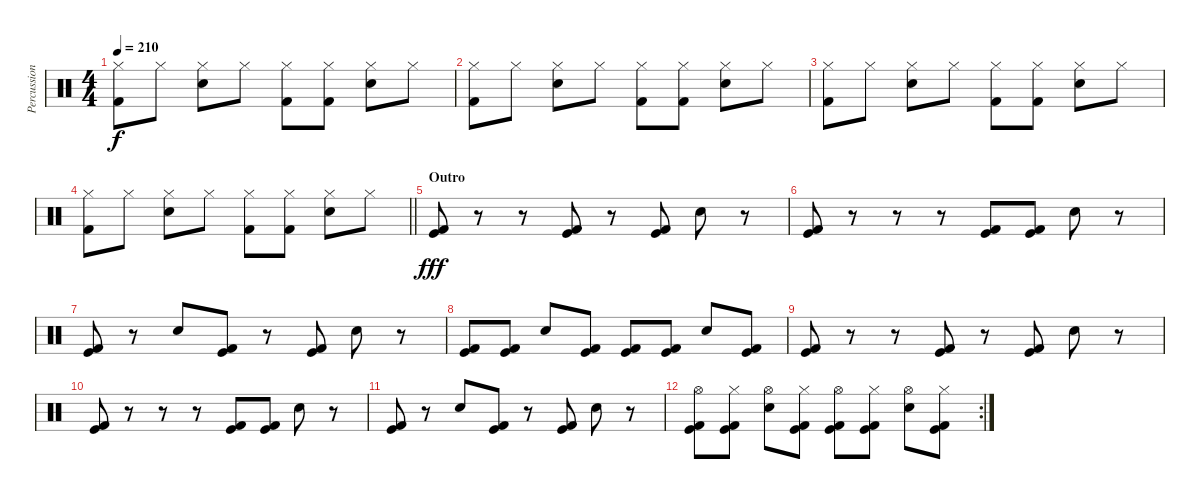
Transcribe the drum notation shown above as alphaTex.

\track ("Percussion" "Percussion") {instrument percussion}
\staff {score}
\articulation defaults
\ts (4 4)
\tempo 210
\clef neutral
\ks c
("Hi-Hat (closed)" "Kick (hit) 2").8{dy f} "Hi-Hat (closed)".8 ("Hi-Hat (closed)" "Snare (hit) 2").8 "Hi-Hat (closed)".8 ("Hi-Hat (closed)" "Kick (hit) 2").8 ("Hi-Hat (closed)" "Kick (hit) 2").8 ("Hi-Hat (closed)" "Snare (hit) 2").8 "Hi-Hat (closed)".8 |
("Hi-Hat (closed)" "Kick (hit) 2").8 "Hi-Hat (closed)".8 ("Hi-Hat (closed)" "Snare (hit) 2").8 "Hi-Hat (closed)".8 ("Hi-Hat (closed)" "Kick (hit) 2").8 ("Hi-Hat (closed)" "Kick (hit) 2").8 ("Hi-Hat (closed)" "Snare (hit) 2").8 "Hi-Hat (closed)".8 |
("Hi-Hat (closed)" "Kick (hit) 2").8 "Hi-Hat (closed)".8 ("Hi-Hat (closed)" "Snare (hit) 2").8 "Hi-Hat (closed)".8 ("Hi-Hat (closed)" "Kick (hit) 2").8 ("Hi-Hat (closed)" "Kick (hit) 2").8 ("Hi-Hat (closed)" "Snare (hit) 2").8 "Hi-Hat (closed)".8 |
\barLineRight lightlight
("Hi-Hat (closed)" "Kick (hit) 2").8 "Hi-Hat (closed)".8 ("Hi-Hat (closed)" "Snare (hit) 2").8 "Hi-Hat (closed)".8 ("Hi-Hat (closed)" "Kick (hit) 2").8 ("Hi-Hat (closed)" "Kick (hit) 2").8 ("Hi-Hat (closed)" "Snare (hit) 2").8 "Hi-Hat (closed)".8 |
\section ("" "Outro")
("Kick (hit)" "Kick (hit) 2").8{dy fff} r.8 r.8 ("Kick (hit)" "Kick (hit) 2").8 r.8 ("Kick (hit)" "Kick (hit) 2").8 "Snare (hit) 2".8 r.8 |
("Kick (hit)" "Kick (hit) 2").8 r.8 r.8 r.8 ("Kick (hit)" "Kick (hit) 2").8 ("Kick (hit)" "Kick (hit) 2").8 "Snare (hit) 2".8 r.8 |
("Kick (hit)" "Kick (hit) 2").8 r.8 "Snare (hit) 2".8 ("Kick (hit)" "Kick (hit) 2").8 r.8 ("Kick (hit)" "Kick (hit) 2").8 "Snare (hit) 2".8 r.8 |
("Kick (hit)" "Kick (hit) 2").8 ("Kick (hit)" "Kick (hit) 2").8 "Snare (hit) 2".8 ("Kick (hit)" "Kick (hit) 2").8 ("Kick (hit)" "Kick (hit) 2").8 ("Kick (hit)" "Kick (hit) 2").8 "Snare (hit) 2".8 ("Kick (hit)" "Kick (hit) 2").8 |
("Kick (hit)" "Kick (hit) 2").8 r.8 r.8 ("Kick (hit)" "Kick (hit) 2").8 r.8 ("Kick (hit)" "Kick (hit) 2").8 "Snare (hit) 2".8 r.8 |
("Kick (hit)" "Kick (hit) 2").8 r.8 r.8 r.8 ("Kick (hit)" "Kick (hit) 2").8 ("Kick (hit)" "Kick (hit) 2").8 "Snare (hit) 2".8 r.8 |
("Kick (hit)" "Kick (hit) 2").8 r.8 "Snare (hit) 2".8 ("Kick (hit)" "Kick (hit) 2").8 r.8 ("Kick (hit)" "Kick (hit) 2").8 "Snare (hit) 2".8 r.8 |
\rc 2
("Hi-Hat (open)" "Kick (hit)" "Kick (hit) 2").8 ("Hi-Hat (closed)" "Kick (hit)" "Kick (hit) 2").8 ("Hi-Hat (open)" "Snare (hit) 2").8 ("Hi-Hat (closed)" "Kick (hit)" "Kick (hit) 2").8 ("Hi-Hat (open)" "Kick (hit)" "Kick (hit) 2").8 ("Hi-Hat (closed)" "Kick (hit)" "Kick (hit) 2").8 ("Hi-Hat (open)" "Snare (hit) 2").8 ("Hi-Hat (closed)" "Kick (hit)" "Kick (hit) 2").8
